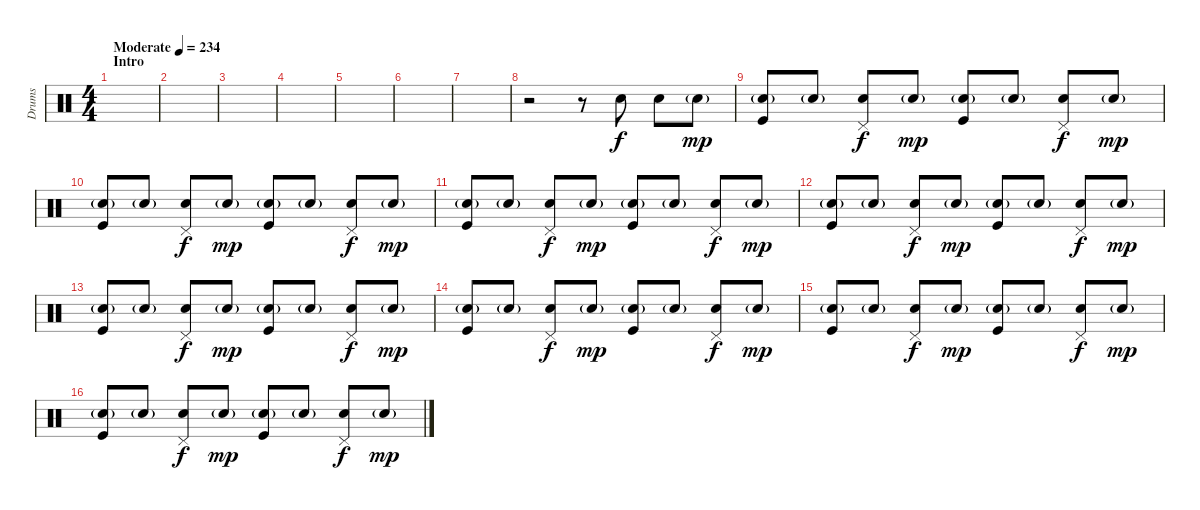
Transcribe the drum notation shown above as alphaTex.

\track ("Drums" "Drums") {instrument percussion}
\staff {score}
\articulation defaults
\ts (4 4)
\section ("" "Intro")
\tempo (234 "Moderate")
\clef neutral
\ks c
|
|
|
|
|
|
|
r.2 r.8 "Snare (hit) 2".8 "Snare (hit) 2".8 "Snare (hit) 2"{g}.8{dy mp} |
("Snare (hit) 2"{g} "Kick (hit)").8 "Snare (hit) 2"{g}.8 ("Snare (hit) 2" "Pedal Hi-Hat (hit)").8{dy f} "Snare (hit) 2"{g}.8{dy mp} ("Snare (hit) 2"{g} "Kick (hit)").8 "Snare (hit) 2"{g}.8 ("Snare (hit) 2" "Pedal Hi-Hat (hit)").8{dy f} "Snare (hit) 2"{g}.8{dy mp} |
("Snare (hit) 2"{g} "Kick (hit)").8 "Snare (hit) 2"{g}.8 ("Snare (hit) 2" "Pedal Hi-Hat (hit)").8{dy f} "Snare (hit) 2"{g}.8{dy mp} ("Snare (hit) 2"{g} "Kick (hit)").8 "Snare (hit) 2"{g}.8 ("Snare (hit) 2" "Pedal Hi-Hat (hit)").8{dy f} "Snare (hit) 2"{g}.8{dy mp} |
("Snare (hit) 2"{g} "Kick (hit)").8 "Snare (hit) 2"{g}.8 ("Snare (hit) 2" "Pedal Hi-Hat (hit)").8{dy f} "Snare (hit) 2"{g}.8{dy mp} ("Snare (hit) 2"{g} "Kick (hit)").8 "Snare (hit) 2"{g}.8 ("Snare (hit) 2" "Pedal Hi-Hat (hit)").8{dy f} "Snare (hit) 2"{g}.8{dy mp} |
("Snare (hit) 2"{g} "Kick (hit)").8 "Snare (hit) 2"{g}.8 ("Snare (hit) 2" "Pedal Hi-Hat (hit)").8{dy f} "Snare (hit) 2"{g}.8{dy mp} ("Snare (hit) 2"{g} "Kick (hit)").8 "Snare (hit) 2"{g}.8 ("Snare (hit) 2" "Pedal Hi-Hat (hit)").8{dy f} "Snare (hit) 2"{g}.8{dy mp} |
("Snare (hit) 2"{g} "Kick (hit)").8 "Snare (hit) 2"{g}.8 ("Snare (hit) 2" "Pedal Hi-Hat (hit)").8{dy f} "Snare (hit) 2"{g}.8{dy mp} ("Snare (hit) 2"{g} "Kick (hit)").8 "Snare (hit) 2"{g}.8 ("Snare (hit) 2" "Pedal Hi-Hat (hit)").8{dy f} "Snare (hit) 2"{g}.8{dy mp} |
("Snare (hit) 2"{g} "Kick (hit)").8 "Snare (hit) 2"{g}.8 ("Snare (hit) 2" "Pedal Hi-Hat (hit)").8{dy f} "Snare (hit) 2"{g}.8{dy mp} ("Snare (hit) 2"{g} "Kick (hit)").8 "Snare (hit) 2"{g}.8 ("Snare (hit) 2" "Pedal Hi-Hat (hit)").8{dy f} "Snare (hit) 2"{g}.8{dy mp} |
("Snare (hit) 2"{g} "Kick (hit)").8 "Snare (hit) 2"{g}.8 ("Snare (hit) 2" "Pedal Hi-Hat (hit)").8{dy f} "Snare (hit) 2"{g}.8{dy mp} ("Snare (hit) 2"{g} "Kick (hit)").8 "Snare (hit) 2"{g}.8 ("Snare (hit) 2" "Pedal Hi-Hat (hit)").8{dy f} "Snare (hit) 2"{g}.8{dy mp} |
("Snare (hit) 2"{g} "Kick (hit)").8 "Snare (hit) 2"{g}.8 ("Snare (hit) 2" "Pedal Hi-Hat (hit)").8{dy f} "Snare (hit) 2"{g}.8{dy mp} ("Snare (hit) 2"{g} "Kick (hit)").8 "Snare (hit) 2"{g}.8 ("Snare (hit) 2" "Pedal Hi-Hat (hit)").8{dy f} "Snare (hit) 2"{g}.8{dy mp}
